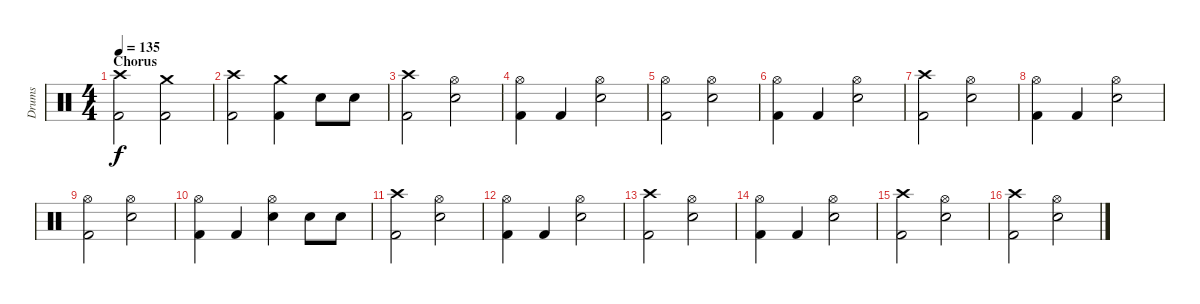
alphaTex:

\track ("Drums" "Drums") {instrument percussion}
\staff {score}
\articulation defaults
\ts (4 4)
\section ("" "Chorus")
\tempo 135
\clef neutral
\ks c
("Crash high (hit)" "Kick (hit) 2").2{dy f} ("Crash medium (hit)" "Kick (hit) 2").2 |
("Crash high (hit)" "Kick (hit) 2").2 ("Crash medium (hit)" "Kick (hit) 2").4 "Electric Snare (hit)".8 "Electric Snare (hit)".8 |
("Crash high (hit)" "Kick (hit) 2").2 ("Hi-Hat (open)" "Electric Snare (hit)").2 |
("Hi-Hat (open)" "Kick (hit) 2").4 "Kick (hit) 2".4 ("Hi-Hat (open)" "Electric Snare (hit)").2 |
("Hi-Hat (open)" "Kick (hit) 2").2 ("Hi-Hat (open)" "Electric Snare (hit)").2 |
("Hi-Hat (open)" "Kick (hit) 2").4 "Kick (hit) 2".4 ("Hi-Hat (open)" "Electric Snare (hit)").2 |
("Crash high (hit)" "Kick (hit) 2").2 ("Hi-Hat (open)" "Electric Snare (hit)").2 |
("Hi-Hat (open)" "Kick (hit) 2").4 "Kick (hit) 2".4 ("Hi-Hat (open)" "Electric Snare (hit)").2 |
("Hi-Hat (open)" "Kick (hit) 2").2 ("Hi-Hat (open)" "Electric Snare (hit)").2 |
("Hi-Hat (open)" "Kick (hit) 2").4 "Kick (hit) 2".4 ("Hi-Hat (open)" "Electric Snare (hit)").4 "Electric Snare (hit)".8 "Electric Snare (hit)".8 |
("Crash high (hit)" "Kick (hit) 2").2 ("Hi-Hat (open)" "Electric Snare (hit)").2 |
("Hi-Hat (open)" "Kick (hit) 2").4 "Kick (hit) 2".4 ("Hi-Hat (open)" "Electric Snare (hit)").2 |
("Crash high (hit)" "Kick (hit) 2").2 ("Hi-Hat (open)" "Electric Snare (hit)").2 |
("Hi-Hat (open)" "Kick (hit) 2").4 "Kick (hit) 2".4 ("Hi-Hat (open)" "Electric Snare (hit)").2 |
("Crash high (hit)" "Kick (hit) 2").2 ("Hi-Hat (open)" "Electric Snare (hit)").2 |
("Crash high (hit)" "Kick (hit) 2").2 ("Hi-Hat (open)" "Electric Snare (hit)").2
